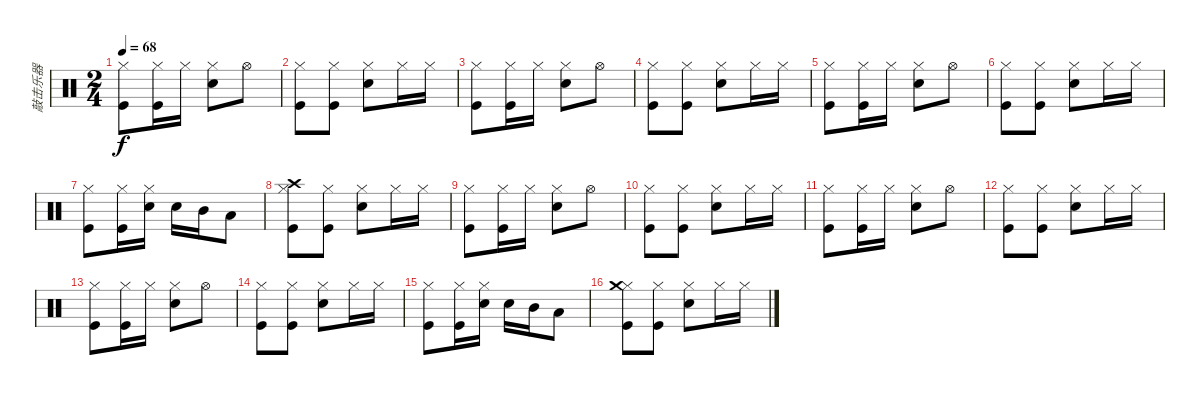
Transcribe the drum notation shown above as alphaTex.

\track ("敲击乐器" "敲击乐器") {instrument percussion}
\staff {score}
\articulation defaults
\ts (2 4)
\tempo 68
\clef neutral
\ks c
("Hi-Hat (closed)" "Kick (hit)").8{dy f} ("Hi-Hat (closed)" "Kick (hit)").16 "Hi-Hat (closed)".16 ("Hi-Hat (closed)" "Snare (hit) 2").8 "Hi-Hat (open)".8 |
("Hi-Hat (closed)" "Kick (hit)").8 ("Hi-Hat (closed)" "Kick (hit)").8 ("Hi-Hat (closed)" "Snare (hit) 2").8 "Hi-Hat (closed)".16 "Hi-Hat (closed)".16 |
("Hi-Hat (closed)" "Kick (hit)").8 ("Hi-Hat (closed)" "Kick (hit)").16 "Hi-Hat (closed)".16 ("Hi-Hat (closed)" "Snare (hit) 2").8 "Hi-Hat (open)".8 |
("Hi-Hat (closed)" "Kick (hit)").8 ("Hi-Hat (closed)" "Kick (hit)").8 ("Hi-Hat (closed)" "Snare (hit) 2").8 "Hi-Hat (closed)".16 "Hi-Hat (closed)".16 |
("Hi-Hat (closed)" "Kick (hit)").8 ("Hi-Hat (closed)" "Kick (hit)").16 "Hi-Hat (closed)".16 ("Hi-Hat (closed)" "Snare (hit) 2").8 "Hi-Hat (open)".8 |
("Hi-Hat (closed)" "Kick (hit)").8 ("Hi-Hat (closed)" "Kick (hit)").8 ("Hi-Hat (closed)" "Snare (hit) 2").8 "Hi-Hat (closed)".16 "Hi-Hat (closed)".16 |
("Hi-Hat (closed)" "Kick (hit)").8 ("Hi-Hat (closed)" "Kick (hit)").16 ("Hi-Hat (closed)" "Snare (hit) 2").16 "Snare (hit) 2".16 "Mid Tom (hit)".16 "Low Tom (hit)".8 |
("Hi-Hat (closed)" "Crash high (hit)" "Kick (hit)").8 ("Hi-Hat (closed)" "Kick (hit)").8 ("Hi-Hat (closed)" "Snare (hit) 2").8 "Hi-Hat (closed)".16 "Hi-Hat (closed)".16 |
("Hi-Hat (closed)" "Kick (hit)").8 ("Hi-Hat (closed)" "Kick (hit)").16 "Hi-Hat (closed)".16 ("Hi-Hat (closed)" "Snare (hit) 2").8 "Hi-Hat (open)".8 |
("Hi-Hat (closed)" "Kick (hit)").8 ("Hi-Hat (closed)" "Kick (hit)").8 ("Hi-Hat (closed)" "Snare (hit) 2").8 "Hi-Hat (closed)".16 "Hi-Hat (closed)".16 |
("Hi-Hat (closed)" "Kick (hit)").8 ("Hi-Hat (closed)" "Kick (hit)").16 "Hi-Hat (closed)".16 ("Hi-Hat (closed)" "Snare (hit) 2").8 "Hi-Hat (open)".8 |
("Hi-Hat (closed)" "Kick (hit)").8 ("Hi-Hat (closed)" "Kick (hit)").8 ("Hi-Hat (closed)" "Snare (hit) 2").8 "Hi-Hat (closed)".16 "Hi-Hat (closed)".16 |
("Hi-Hat (closed)" "Kick (hit)").8 ("Hi-Hat (closed)" "Kick (hit)").16 "Hi-Hat (closed)".16 ("Hi-Hat (closed)" "Snare (hit) 2").8 "Hi-Hat (open)".8 |
("Hi-Hat (closed)" "Kick (hit)").8 ("Hi-Hat (closed)" "Kick (hit)").8 ("Hi-Hat (closed)" "Snare (hit) 2").8 "Hi-Hat (closed)".16 "Hi-Hat (closed)".16 |
("Hi-Hat (closed)" "Kick (hit)").8 ("Hi-Hat (closed)" "Kick (hit)").16 ("Hi-Hat (closed)" "Snare (hit) 2").16 "Snare (hit) 2".16 "Mid Tom (hit)".16 "Low Tom (hit)".8 |
("Hi-Hat (closed)" "Crash medium (hit)" "Kick (hit)").8 ("Hi-Hat (closed)" "Kick (hit)").8 ("Hi-Hat (closed)" "Snare (hit) 2").8 "Hi-Hat (closed)".16 "Hi-Hat (closed)".16
